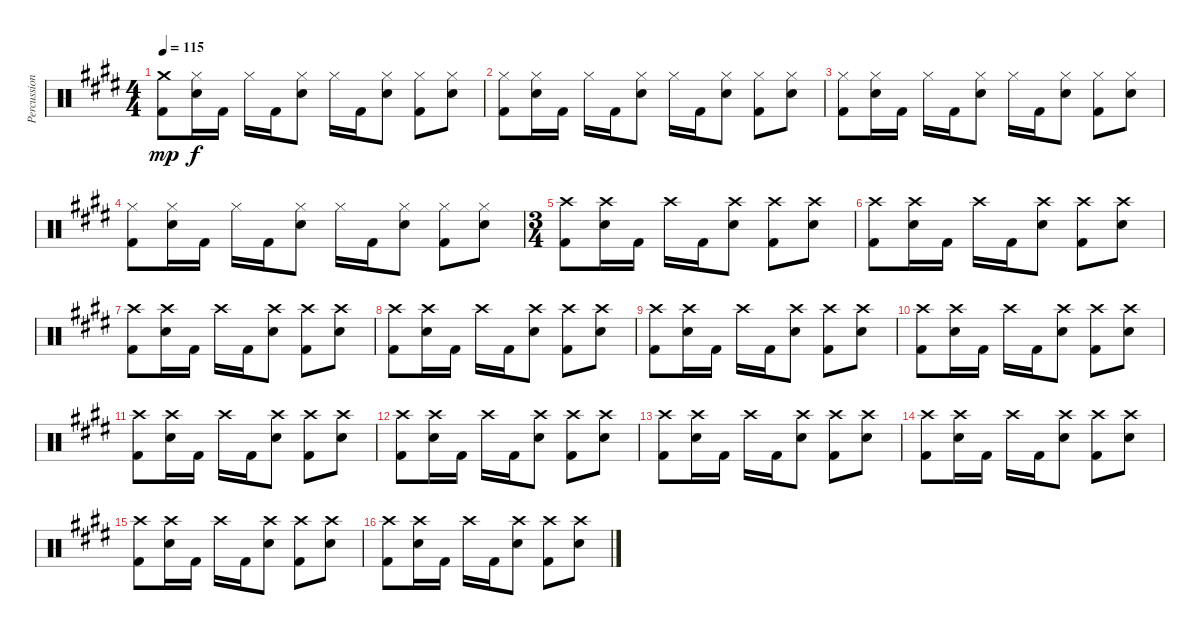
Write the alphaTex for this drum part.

\track ("Percussion" "Percussion") {instrument percussion}
\staff {score}
\articulation defaults
\ts (4 4)
\tempo 115
\clef neutral
\ks e
("Crash medium (hit)" "Kick (hit) 2").8{dy mp} ("Hi-Hat (closed)" "Electric Snare (hit)").16{dy f} "Kick (hit) 2".16 "Hi-Hat (closed)".16 "Kick (hit) 2".16 ("Hi-Hat (closed)" "Electric Snare (hit)").8 "Hi-Hat (closed)".16 "Kick (hit) 2".16 ("Hi-Hat (closed)" "Electric Snare (hit)").8 ("Hi-Hat (closed)" "Kick (hit) 2").8 ("Hi-Hat (closed)" "Electric Snare (hit)").8 |
("Hi-Hat (closed)" "Kick (hit) 2").8 ("Hi-Hat (closed)" "Electric Snare (hit)").16 "Kick (hit) 2".16 "Hi-Hat (closed)".16 "Kick (hit) 2".16 ("Hi-Hat (closed)" "Electric Snare (hit)").8 "Hi-Hat (closed)".16 "Kick (hit) 2".16 ("Hi-Hat (closed)" "Electric Snare (hit)").8 ("Hi-Hat (closed)" "Kick (hit) 2").8 ("Hi-Hat (closed)" "Electric Snare (hit)").8 |
("Hi-Hat (closed)" "Kick (hit) 2").8 ("Hi-Hat (closed)" "Electric Snare (hit)").16 "Kick (hit) 2".16 "Hi-Hat (closed)".16 "Kick (hit) 2".16 ("Hi-Hat (closed)" "Electric Snare (hit)").8 "Hi-Hat (closed)".16 "Kick (hit) 2".16 ("Hi-Hat (closed)" "Electric Snare (hit)").8 ("Hi-Hat (closed)" "Kick (hit) 2").8 ("Hi-Hat (closed)" "Electric Snare (hit)").8 |
("Hi-Hat (closed)" "Kick (hit) 2").8 ("Hi-Hat (closed)" "Electric Snare (hit)").16 "Kick (hit) 2".16 "Hi-Hat (closed)".16 "Kick (hit) 2".16 ("Hi-Hat (closed)" "Electric Snare (hit)").8 "Hi-Hat (closed)".16 "Kick (hit) 2".16 ("Hi-Hat (closed)" "Electric Snare (hit)").8 ("Hi-Hat (closed)" "Kick (hit) 2").8 ("Hi-Hat (closed)" "Electric Snare (hit)").8 |
\ts (3 4)
("Crash high (hit)" "Kick (hit) 2").8 ("Crash high (hit)" "Electric Snare (hit)").16 "Kick (hit) 2".16 "Crash high (hit)".16 "Kick (hit) 2".16 ("Crash high (hit)" "Electric Snare (hit)").8 ("Crash high (hit)" "Kick (hit) 2").8 ("Crash high (hit)" "Electric Snare (hit)").8 |
("Crash high (hit)" "Kick (hit) 2").8 ("Crash high (hit)" "Electric Snare (hit)").16 "Kick (hit) 2".16 "Crash high (hit)".16 "Kick (hit) 2".16 ("Crash high (hit)" "Electric Snare (hit)").8 ("Crash high (hit)" "Kick (hit) 2").8 ("Crash high (hit)" "Electric Snare (hit)").8 |
("Crash high (hit)" "Kick (hit) 2").8 ("Crash high (hit)" "Electric Snare (hit)").16 "Kick (hit) 2".16 "Crash high (hit)".16 "Kick (hit) 2".16 ("Crash high (hit)" "Electric Snare (hit)").8 ("Crash high (hit)" "Kick (hit) 2").8 ("Crash high (hit)" "Electric Snare (hit)").8 |
("Crash high (hit)" "Kick (hit) 2").8 ("Crash high (hit)" "Electric Snare (hit)").16 "Kick (hit) 2".16 "Crash high (hit)".16 "Kick (hit) 2".16 ("Crash high (hit)" "Electric Snare (hit)").8 ("Crash high (hit)" "Kick (hit) 2").8 ("Crash high (hit)" "Electric Snare (hit)").8 |
("Crash high (hit)" "Kick (hit) 2").8 ("Crash high (hit)" "Electric Snare (hit)").16 "Kick (hit) 2".16 "Crash high (hit)".16 "Kick (hit) 2".16 ("Crash high (hit)" "Electric Snare (hit)").8 ("Crash high (hit)" "Kick (hit) 2").8 ("Crash high (hit)" "Electric Snare (hit)").8 |
("Crash high (hit)" "Kick (hit) 2").8 ("Crash high (hit)" "Electric Snare (hit)").16 "Kick (hit) 2".16 "Crash high (hit)".16 "Kick (hit) 2".16 ("Crash high (hit)" "Electric Snare (hit)").8 ("Crash high (hit)" "Kick (hit) 2").8 ("Crash high (hit)" "Electric Snare (hit)").8 |
("Crash high (hit)" "Kick (hit) 2").8 ("Crash high (hit)" "Electric Snare (hit)").16 "Kick (hit) 2".16 "Crash high (hit)".16 "Kick (hit) 2".16 ("Crash high (hit)" "Electric Snare (hit)").8 ("Crash high (hit)" "Kick (hit) 2").8 ("Crash high (hit)" "Electric Snare (hit)").8 |
("Crash high (hit)" "Kick (hit) 2").8 ("Crash high (hit)" "Electric Snare (hit)").16 "Kick (hit) 2".16 "Crash high (hit)".16 "Kick (hit) 2".16 ("Crash high (hit)" "Electric Snare (hit)").8 ("Crash high (hit)" "Kick (hit) 2").8 ("Crash high (hit)" "Electric Snare (hit)").8 |
("Crash high (hit)" "Kick (hit) 2").8 ("Crash high (hit)" "Electric Snare (hit)").16 "Kick (hit) 2".16 "Crash high (hit)".16 "Kick (hit) 2".16 ("Crash high (hit)" "Electric Snare (hit)").8 ("Crash high (hit)" "Kick (hit) 2").8 ("Crash high (hit)" "Electric Snare (hit)").8 |
("Crash high (hit)" "Kick (hit) 2").8 ("Crash high (hit)" "Electric Snare (hit)").16 "Kick (hit) 2".16 "Crash high (hit)".16 "Kick (hit) 2".16 ("Crash high (hit)" "Electric Snare (hit)").8 ("Crash high (hit)" "Kick (hit) 2").8 ("Crash high (hit)" "Electric Snare (hit)").8 |
("Crash high (hit)" "Kick (hit) 2").8 ("Crash high (hit)" "Electric Snare (hit)").16 "Kick (hit) 2".16 "Crash high (hit)".16 "Kick (hit) 2".16 ("Crash high (hit)" "Electric Snare (hit)").8 ("Crash high (hit)" "Kick (hit) 2").8 ("Crash high (hit)" "Electric Snare (hit)").8 |
("Crash high (hit)" "Kick (hit) 2").8 ("Crash high (hit)" "Electric Snare (hit)").16 "Kick (hit) 2".16 "Crash high (hit)".16 "Kick (hit) 2".16 ("Crash high (hit)" "Electric Snare (hit)").8 ("Crash high (hit)" "Kick (hit) 2").8 ("Crash high (hit)" "Electric Snare (hit)").8
